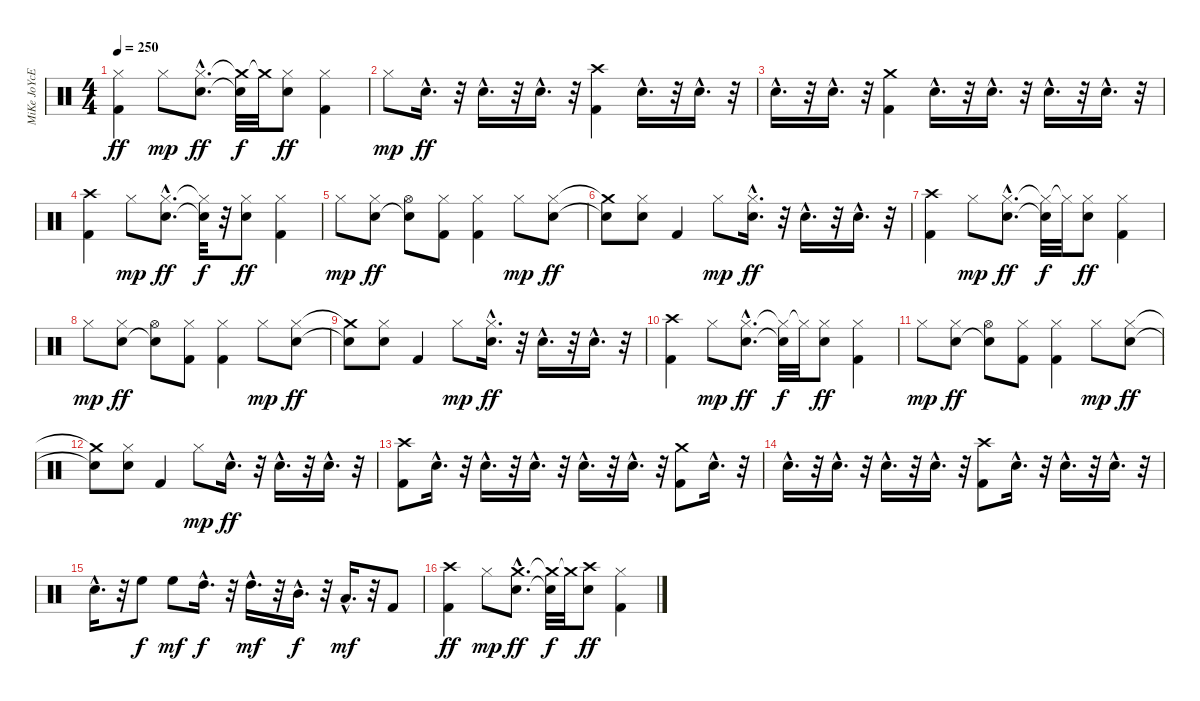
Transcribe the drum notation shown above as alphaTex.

\track ("MiKe JoYcE" "MiKe JoYcE") {instrument percussion}
\staff {score}
\articulation defaults
\ts (4 4)
\tempo 250
\clef neutral
\ks c
("Hi-Hat (closed)" "Kick (hit) 2").4{dy ff} "Hi-Hat (closed)".8{dy mp} ("Hi-Hat (closed)"{hac} "Electric Snare (hit)"{hac}).8{d dy ff} ("Crash medium (hit)"{t} "Electric Snare (hit)"{t}).32{dy f} "Crash medium (hit)"{t}.32 ("Hi-Hat (closed)" "Electric Snare (hit)").8{dy ff} ("Hi-Hat (closed)" "Kick (hit) 2").4 |
"Hi-Hat (closed)".8{dy mp} "Electric Snare (hit)"{hac}.16{d dy ff} r.32 "Electric Snare (hit)"{hac}.16{d} r.32 "Electric Snare (hit)"{hac}.16{d} r.32 ("Crash high (hit)" "Kick (hit) 2").4 "Electric Snare (hit)"{hac}.16{d} r.32 "Electric Snare (hit)"{hac}.16{d} r.32 |
"Electric Snare (hit)"{hac}.16{d} r.32 "Electric Snare (hit)"{hac}.16{d} r.32 ("Crash medium (hit)" "Kick (hit) 2").4 "Electric Snare (hit)"{hac}.16{d} r.32 "Electric Snare (hit)"{hac}.16{d} r.32 "Electric Snare (hit)"{hac}.16{d} r.32 "Electric Snare (hit)"{hac}.16{d} r.32 |
("Crash high (hit)" "Kick (hit) 2").4 "Hi-Hat (closed)".8{dy mp} ("Hi-Hat (closed)"{hac} "Electric Snare (hit)"{hac}).8{d dy ff} ("Hi-Hat (closed)"{t} "Electric Snare (hit)"{t}).32{dy f} r.32 ("Hi-Hat (closed)" "Electric Snare (hit)").8{dy ff} ("Hi-Hat (closed)" "Kick (hit) 2").4 |
"Hi-Hat (closed)".8{dy mp} ("Hi-Hat (closed)" "Electric Snare (hit)").8{dy ff} ("Hi-Hat (open)" "Electric Snare (hit)"{t}).8 ("Hi-Hat (closed)" "Kick (hit) 2").8 ("Hi-Hat (closed)" "Kick (hit) 2").4 "Hi-Hat (closed)".8{dy mp} ("Hi-Hat (closed)" "Electric Snare (hit)").8{dy ff} |
("Crash medium (hit)"{t} "Electric Snare (hit)"{t}).8 ("Hi-Hat (closed)" "Electric Snare (hit)").8 "Kick (hit) 2".4 "Hi-Hat (closed)".8{dy mp} ("Hi-Hat (closed)"{hac} "Electric Snare (hit)"{hac}).16{d dy ff} r.32 "Electric Snare (hit)"{hac}.16{d} r.32 "Electric Snare (hit)"{hac}.16{d} r.32 |
("Crash high (hit)" "Kick (hit) 2").4 "Hi-Hat (closed)".8{dy mp} ("Hi-Hat (closed)"{hac} "Electric Snare (hit)"{hac}).8{d dy ff} ("Hi-Hat (closed)"{t} "Electric Snare (hit)"{t}).32{dy f} "Hi-Hat (closed)"{t}.32 ("Hi-Hat (closed)" "Electric Snare (hit)").8{dy ff} ("Hi-Hat (closed)" "Kick (hit) 2").4 |
"Hi-Hat (closed)".8{dy mp} ("Hi-Hat (closed)" "Electric Snare (hit)").8{dy ff} ("Hi-Hat (open)" "Electric Snare (hit)"{t}).8 ("Hi-Hat (closed)" "Kick (hit) 2").8 ("Hi-Hat (closed)" "Kick (hit) 2").4 "Hi-Hat (closed)".8{dy mp} ("Hi-Hat (closed)" "Electric Snare (hit)").8{dy ff} |
("Crash medium (hit)"{t} "Electric Snare (hit)"{t}).8 ("Hi-Hat (closed)" "Electric Snare (hit)").8 "Kick (hit) 2".4 "Hi-Hat (closed)".8{dy mp} ("Hi-Hat (closed)"{hac} "Electric Snare (hit)"{hac}).16{d dy ff} r.32 "Electric Snare (hit)"{hac}.16{d} r.32 "Electric Snare (hit)"{hac}.16{d} r.32 |
("Crash high (hit)" "Kick (hit) 2").4 "Hi-Hat (closed)".8{dy mp} ("Hi-Hat (closed)"{hac} "Electric Snare (hit)"{hac}).8{d dy ff} ("Hi-Hat (closed)"{t} "Electric Snare (hit)"{t}).32{dy f} "Hi-Hat (closed)"{t}.32 ("Hi-Hat (closed)" "Electric Snare (hit)").8{dy ff} ("Hi-Hat (closed)" "Kick (hit) 2").4 |
"Hi-Hat (closed)".8{dy mp} ("Hi-Hat (closed)" "Electric Snare (hit)").8{dy ff} ("Hi-Hat (open)" "Electric Snare (hit)"{t}).8 ("Hi-Hat (closed)" "Kick (hit) 2").8 ("Hi-Hat (closed)" "Kick (hit) 2").4 "Hi-Hat (closed)".8{dy mp} ("Hi-Hat (closed)" "Electric Snare (hit)").8{dy ff} |
("Crash medium (hit)"{t} "Electric Snare (hit)"{t}).8 ("Hi-Hat (closed)" "Electric Snare (hit)").8 "Kick (hit) 2".4 "Hi-Hat (closed)".8{dy mp} "Electric Snare (hit)"{hac}.16{d dy ff} r.32 "Electric Snare (hit)"{hac}.16{d} r.32 "Electric Snare (hit)"{hac}.16{d} r.32 |
("Crash high (hit)" "Kick (hit) 2").8 "Electric Snare (hit)"{hac}.16{d} r.32 "Electric Snare (hit)"{hac}.16{d} r.32 "Electric Snare (hit)"{hac}.16{d} r.32 "Electric Snare (hit)"{hac}.16{d} r.32 "Electric Snare (hit)"{hac}.16{d} r.32 ("Crash medium (hit)" "Kick (hit) 2").8 "Electric Snare (hit)"{hac}.16{d} r.32 |
"Electric Snare (hit)"{hac}.16{d} r.32 "Electric Snare (hit)"{hac}.16{d} r.32 "Electric Snare (hit)"{hac}.16{d} r.32 "Electric Snare (hit)"{hac}.16{d} r.32 ("Crash high (hit)" "Kick (hit) 2").8 "Electric Snare (hit)"{hac}.16{d} r.32 "Electric Snare (hit)"{hac}.16{d} r.32 "Electric Snare (hit)"{hac}.16{d} r.32 |
"Electric Snare (hit)"{hac}.16{d} r.32 "High Floor Tom (hit)".8{dy f} "High Floor Tom (hit)".8{dy mf} "High Tom (hit)"{hac}.16{d dy f} r.32 "High Tom (hit)"{hac}.16{d dy mf} r.32 "Mid Tom (hit)"{hac}.16{d dy f} r.32 "Low Floor Tom (hit)"{hac}.16{d dy mf} r.32 "Kick (hit) 2".8 |
("Crash high (hit)" "Kick (hit) 2").4{dy ff} "Hi-Hat (closed)".8{dy mp} ("Crash medium (hit)"{hac} "Electric Snare (hit)"{hac}).8{d dy ff} ("Crash medium (hit)"{t} "Electric Snare (hit)"{t}).32{dy f} "Crash medium (hit)"{t}.32 ("Crash high (hit)" "Electric Snare (hit)").8{dy ff} ("Hi-Hat (closed)" "Kick (hit) 2").4
